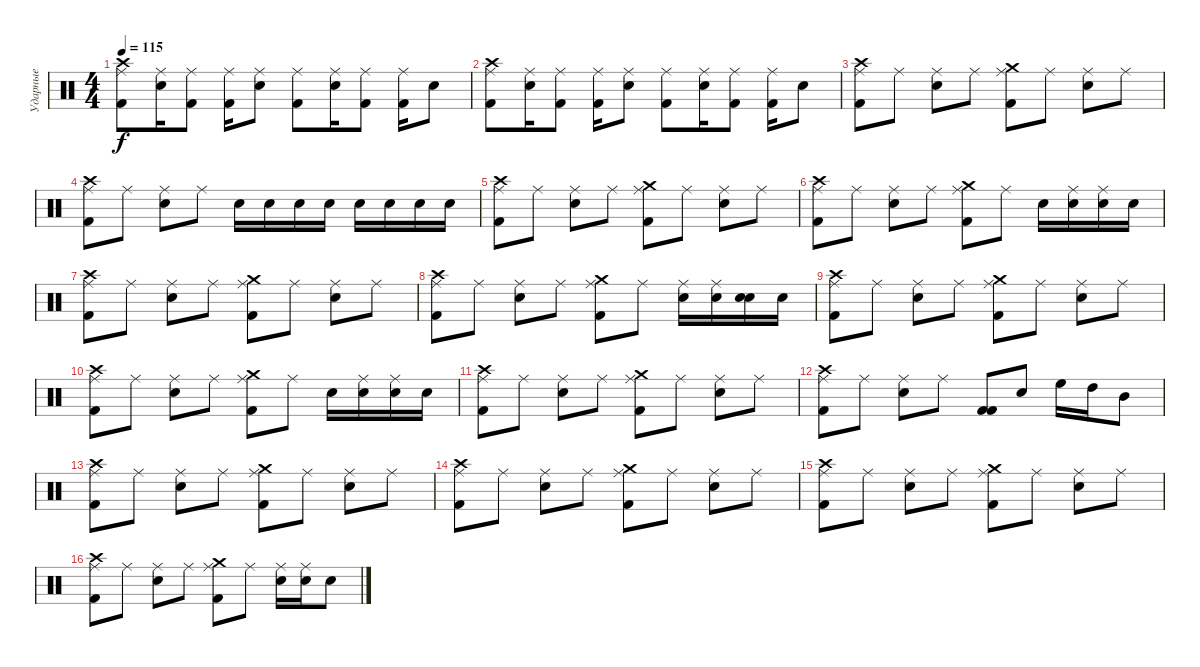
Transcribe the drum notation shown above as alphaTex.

\track ("Ударные" "Ударные") {instrument percussion}
\staff {score}
\articulation defaults
\ts (4 4)
\tempo 115
\clef neutral
\ks c
("Kick (hit) 2" "Crash high (hit)" "Ride (middle)").8{dy f} ("Electric Snare (hit)" "Ride (middle)").16 ("Kick (hit) 2" "Ride (middle)").8 ("Kick (hit) 2" "Ride (middle)").16 ("Electric Snare (hit)" "Ride (middle)").8 ("Kick (hit) 2" "Ride (middle)").8 ("Electric Snare (hit)" "Ride (middle)").16 ("Kick (hit) 2" "Ride (middle)").8 ("Kick (hit) 2" "Ride (middle)").16 "Electric Snare (hit)".8 |
("Kick (hit) 2" "Crash high (hit)" "Ride (middle)").8 ("Electric Snare (hit)" "Ride (middle)").16 ("Kick (hit) 2" "Ride (middle)").8 ("Kick (hit) 2" "Ride (middle)").16 ("Electric Snare (hit)" "Ride (middle)").8 ("Kick (hit) 2" "Ride (middle)").8 ("Electric Snare (hit)" "Ride (middle)").16 ("Kick (hit) 2" "Ride (middle)").8 ("Kick (hit) 2" "Ride (middle)").16 "Electric Snare (hit)".8 |
("Kick (hit) 2" "Crash high (hit)" "Ride (middle)").8 "Ride (middle)".8 ("Electric Snare (hit)" "Ride (middle)").8 "Ride (middle)".8 ("Kick (hit) 2" "Crash medium (hit)" "Ride (middle)").8 "Ride (middle)".8 ("Electric Snare (hit)" "Ride (middle)").8 "Ride (middle)".8 |
("Kick (hit) 2" "Crash high (hit)" "Ride (middle)").8 "Ride (middle)".8 ("Electric Snare (hit)" "Ride (middle)").8 "Ride (middle)".8 "Electric Snare (hit)".16 "Electric Snare (hit)".16 "Electric Snare (hit)".16 "Electric Snare (hit)".16 "Electric Snare (hit)".16 "Electric Snare (hit)".16 "Electric Snare (hit)".16 "Electric Snare (hit)".16 |
("Kick (hit) 2" "Crash high (hit)" "Ride (middle)").8 "Ride (middle)".8 ("Electric Snare (hit)" "Ride (middle)").8 "Ride (middle)".8 ("Kick (hit) 2" "Crash medium (hit)" "Ride (middle)").8 "Ride (middle)".8 ("Electric Snare (hit)" "Ride (middle)").8 "Ride (middle)".8 |
("Kick (hit) 2" "Crash high (hit)" "Ride (middle)").8 "Ride (middle)".8 ("Electric Snare (hit)" "Ride (middle)").8 "Ride (middle)".8 ("Kick (hit) 2" "Crash medium (hit)" "Ride (middle)").8 "Ride (middle)".8 "Electric Snare (hit)".16 ("Electric Snare (hit)" "Ride (middle)").16 ("Electric Snare (hit)" "Ride (middle)").16 "Electric Snare (hit)".16 |
("Kick (hit) 2" "Crash high (hit)" "Ride (middle)").8 "Ride (middle)".8 ("Electric Snare (hit)" "Ride (middle)").8 "Ride (middle)".8 ("Kick (hit) 2" "Crash medium (hit)" "Ride (middle)").8 "Ride (middle)".8 ("Electric Snare (hit)" "Ride (middle)").8 "Ride (middle)".8 |
("Kick (hit) 2" "Crash high (hit)" "Ride (middle)").8 "Ride (middle)".8 ("Electric Snare (hit)" "Ride (middle)").8 "Ride (middle)".8 ("Kick (hit) 2" "Crash medium (hit)" "Ride (middle)").8 "Ride (middle)".8 ("Electric Snare (hit)" "Ride (middle)").16 ("Electric Snare (hit)" "Ride (middle)").16 ("Snare (hit)" "Electric Snare (hit)").16 "Electric Snare (hit)".16 |
("Kick (hit) 2" "Crash high (hit)" "Ride (middle)").8 "Ride (middle)".8 ("Electric Snare (hit)" "Ride (middle)").8 "Ride (middle)".8 ("Kick (hit) 2" "Crash medium (hit)" "Ride (middle)").8 "Ride (middle)".8 ("Electric Snare (hit)" "Ride (middle)").8 "Ride (middle)".8 |
("Kick (hit) 2" "Crash high (hit)" "Ride (middle)").8 "Ride (middle)".8 ("Electric Snare (hit)" "Ride (middle)").8 "Ride (middle)".8 ("Kick (hit) 2" "Crash medium (hit)" "Ride (middle)").8 "Ride (middle)".8 "Electric Snare (hit)".16 ("Electric Snare (hit)" "Ride (middle)").16 ("Electric Snare (hit)" "Ride (middle)").16 "Electric Snare (hit)".16 |
("Kick (hit) 2" "Crash high (hit)" "Ride (middle)").8 "Ride (middle)".8 ("Electric Snare (hit)" "Ride (middle)").8 "Ride (middle)".8 ("Kick (hit) 2" "Crash medium (hit)" "Ride (middle)").8 "Ride (middle)".8 ("Electric Snare (hit)" "Ride (middle)").8 "Ride (middle)".8 |
("Kick (hit) 2" "Crash high (hit)" "Ride (middle)").8 "Ride (middle)".8 ("Electric Snare (hit)" "Ride (middle)").8 "Ride (middle)".8 ("Kick (hit) 2" "Kick (hit) 2").8 "Electric Snare (hit)".8 "High Floor Tom (hit)".16 "High Tom (hit)".16 "Mid Tom (hit)".8 |
("Kick (hit) 2" "Crash high (hit)" "Ride (middle)").8 "Ride (middle)".8 ("Electric Snare (hit)" "Ride (middle)").8 "Ride (middle)".8 ("Kick (hit) 2" "Crash medium (hit)" "Ride (middle)").8 "Ride (middle)".8 ("Electric Snare (hit)" "Ride (middle)").8 "Ride (middle)".8 |
("Kick (hit) 2" "Crash high (hit)" "Ride (middle)").8 "Ride (middle)".8 ("Electric Snare (hit)" "Ride (middle)").8 "Ride (middle)".8 ("Kick (hit) 2" "Crash medium (hit)" "Ride (middle)").8 "Ride (middle)".8 ("Electric Snare (hit)" "Ride (middle)").8 "Ride (middle)".8 |
("Kick (hit) 2" "Crash high (hit)" "Ride (middle)").8 "Ride (middle)".8 ("Electric Snare (hit)" "Ride (middle)").8 "Ride (middle)".8 ("Kick (hit) 2" "Crash medium (hit)" "Ride (middle)").8 "Ride (middle)".8 ("Electric Snare (hit)" "Ride (middle)").8 "Ride (middle)".8 |
("Kick (hit) 2" "Crash high (hit)" "Ride (middle)").8 "Ride (middle)".8 ("Electric Snare (hit)" "Ride (middle)").8 "Ride (middle)".8 ("Kick (hit) 2" "Crash medium (hit)" "Ride (middle)").8 "Ride (middle)".8 ("Electric Snare (hit)" "Ride (middle)").16 ("Electric Snare (hit)" "Ride (middle)").16 "Electric Snare (hit)".8
